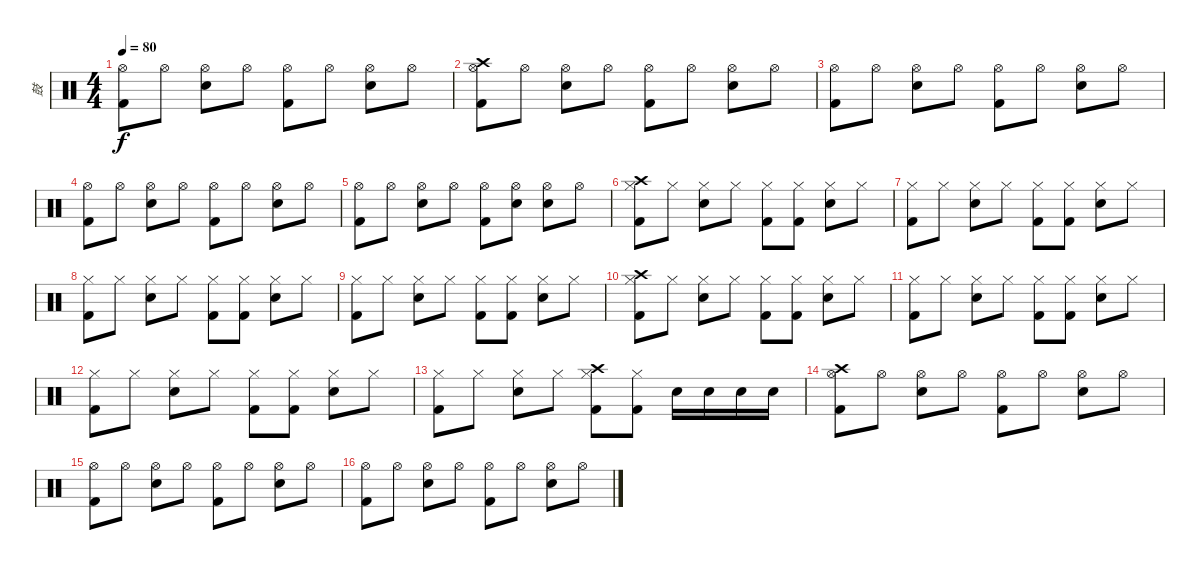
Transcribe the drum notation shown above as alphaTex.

\track ("鼓" "鼓") {instrument percussion}
\staff {score}
\articulation defaults
\ts (4 4)
\tempo 80
\clef neutral
\ks c
("Hi-Hat (open)" "Kick (hit) 2").8{dy f} "Hi-Hat (open)".8 ("Hi-Hat (open)" "Snare (hit) 2").8 "Hi-Hat (open)".8 ("Hi-Hat (open)" "Kick (hit) 2").8 "Hi-Hat (open)".8 ("Hi-Hat (open)" "Snare (hit) 2").8 "Hi-Hat (open)".8 |
("Hi-Hat (open)" "Crash high (hit)" "Kick (hit) 2").8 "Hi-Hat (open)".8 ("Hi-Hat (open)" "Snare (hit) 2").8 "Hi-Hat (open)".8 ("Hi-Hat (open)" "Kick (hit) 2").8 "Hi-Hat (open)".8 ("Hi-Hat (open)" "Snare (hit) 2").8 "Hi-Hat (open)".8 |
("Hi-Hat (open)" "Kick (hit) 2").8 "Hi-Hat (open)".8 ("Hi-Hat (open)" "Snare (hit) 2").8 "Hi-Hat (open)".8 ("Hi-Hat (open)" "Kick (hit) 2").8 "Hi-Hat (open)".8 ("Hi-Hat (open)" "Snare (hit) 2").8 "Hi-Hat (open)".8 |
("Hi-Hat (open)" "Kick (hit) 2").8 "Hi-Hat (open)".8 ("Hi-Hat (open)" "Snare (hit) 2").8 "Hi-Hat (open)".8 ("Hi-Hat (open)" "Kick (hit) 2").8 "Hi-Hat (open)".8 ("Hi-Hat (open)" "Snare (hit) 2").8 "Hi-Hat (open)".8 |
("Hi-Hat (open)" "Kick (hit) 2").8 "Hi-Hat (open)".8 ("Hi-Hat (open)" "Snare (hit) 2").8 "Hi-Hat (open)".8 ("Hi-Hat (open)" "Kick (hit) 2").8 ("Hi-Hat (open)" "Snare (hit) 2").8 ("Hi-Hat (open)" "Snare (hit) 2").8 "Hi-Hat (open)".8 |
("Hi-Hat (closed)" "Crash high (hit)" "Kick (hit) 2").8 "Hi-Hat (closed)".8 ("Hi-Hat (closed)" "Snare (hit) 2").8 "Hi-Hat (closed)".8 ("Hi-Hat (closed)" "Kick (hit) 2").8 ("Hi-Hat (closed)" "Kick (hit) 2").8 ("Hi-Hat (closed)" "Snare (hit) 2").8 "Hi-Hat (closed)".8 |
("Hi-Hat (closed)" "Kick (hit) 2").8 "Hi-Hat (closed)".8 ("Hi-Hat (closed)" "Snare (hit) 2").8 "Hi-Hat (closed)".8 ("Hi-Hat (closed)" "Kick (hit) 2").8 ("Hi-Hat (closed)" "Kick (hit) 2").8 ("Hi-Hat (closed)" "Snare (hit) 2").8 "Hi-Hat (closed)".8 |
("Hi-Hat (closed)" "Kick (hit) 2").8 "Hi-Hat (closed)".8 ("Hi-Hat (closed)" "Snare (hit) 2").8 "Hi-Hat (closed)".8 ("Hi-Hat (closed)" "Kick (hit) 2").8 ("Hi-Hat (closed)" "Kick (hit) 2").8 ("Hi-Hat (closed)" "Snare (hit) 2").8 "Hi-Hat (closed)".8 |
("Hi-Hat (closed)" "Kick (hit) 2").8 "Hi-Hat (closed)".8 ("Hi-Hat (closed)" "Snare (hit) 2").8 "Hi-Hat (closed)".8 ("Hi-Hat (closed)" "Kick (hit) 2").8 ("Hi-Hat (closed)" "Kick (hit) 2").8 ("Hi-Hat (closed)" "Snare (hit) 2").8 "Hi-Hat (closed)".8 |
("Hi-Hat (closed)" "Crash high (hit)" "Kick (hit) 2").8 "Hi-Hat (closed)".8 ("Hi-Hat (closed)" "Snare (hit) 2").8 "Hi-Hat (closed)".8 ("Hi-Hat (closed)" "Kick (hit) 2").8 ("Hi-Hat (closed)" "Kick (hit) 2").8 ("Hi-Hat (closed)" "Snare (hit) 2").8 "Hi-Hat (closed)".8 |
("Hi-Hat (closed)" "Kick (hit) 2").8 "Hi-Hat (closed)".8 ("Hi-Hat (closed)" "Snare (hit) 2").8 "Hi-Hat (closed)".8 ("Hi-Hat (closed)" "Kick (hit) 2").8 ("Hi-Hat (closed)" "Kick (hit) 2").8 ("Hi-Hat (closed)" "Snare (hit) 2").8 "Hi-Hat (closed)".8 |
("Hi-Hat (closed)" "Kick (hit) 2").8 "Hi-Hat (closed)".8 ("Hi-Hat (closed)" "Snare (hit) 2").8 "Hi-Hat (closed)".8 ("Hi-Hat (closed)" "Kick (hit) 2").8 ("Hi-Hat (closed)" "Kick (hit) 2").8 ("Hi-Hat (closed)" "Snare (hit) 2").8 "Hi-Hat (closed)".8 |
("Hi-Hat (closed)" "Kick (hit) 2").8 "Hi-Hat (closed)".8 ("Hi-Hat (closed)" "Snare (hit) 2").8 "Hi-Hat (closed)".8 ("Hi-Hat (closed)" "Crash high (hit)" "Kick (hit) 2").8 ("Hi-Hat (closed)" "Kick (hit) 2").8 "Snare (hit) 2".16 "Snare (hit) 2".16 "Snare (hit) 2".16 "Snare (hit) 2".16 |
("Hi-Hat (open)" "Crash high (hit)" "Kick (hit) 2").8 "Hi-Hat (open)".8 ("Hi-Hat (open)" "Snare (hit) 2").8 "Hi-Hat (open)".8 ("Hi-Hat (open)" "Kick (hit) 2").8 "Hi-Hat (open)".8 ("Hi-Hat (open)" "Snare (hit) 2").8 "Hi-Hat (open)".8 |
("Hi-Hat (open)" "Kick (hit) 2").8 "Hi-Hat (open)".8 ("Hi-Hat (open)" "Snare (hit) 2").8 "Hi-Hat (open)".8 ("Hi-Hat (open)" "Kick (hit) 2").8 "Hi-Hat (open)".8 ("Hi-Hat (open)" "Snare (hit) 2").8 "Hi-Hat (open)".8 |
("Hi-Hat (open)" "Kick (hit) 2").8 "Hi-Hat (open)".8 ("Hi-Hat (open)" "Snare (hit) 2").8 "Hi-Hat (open)".8 ("Hi-Hat (open)" "Kick (hit) 2").8 "Hi-Hat (open)".8 ("Hi-Hat (open)" "Snare (hit) 2").8 "Hi-Hat (open)".8
